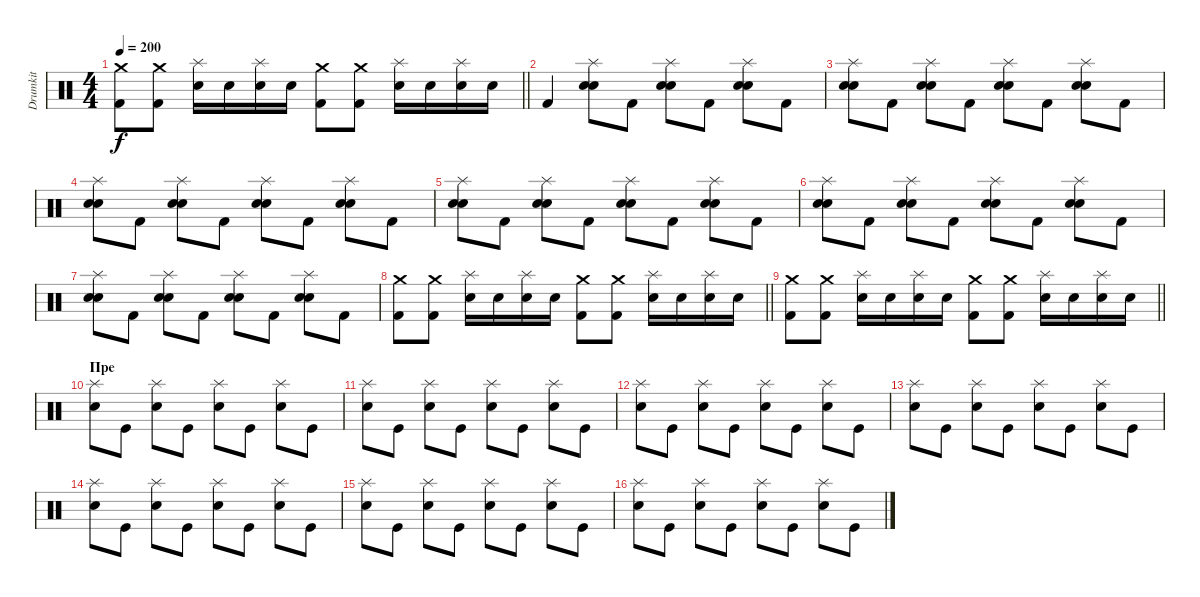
\track ("Drumkit" "Drumkit") {instrument percussion}
\staff {score}
\articulation defaults
\ts (4 4)
\tempo 200
\clef neutral
\barLineRight lightlight
\ks c
("Crash medium (hit)" "Kick (hit) 2").8{dy f} ("Crash medium (hit)" "Kick (hit) 2").8 ("Splash (hit)" "Electric Snare (hit)").16 "Electric Snare (hit)".16 ("Splash (hit)" "Electric Snare (hit)").16 "Electric Snare (hit)".16 ("Crash medium (hit)" "Kick (hit) 2").8 ("Crash medium (hit)" "Kick (hit) 2").8 ("Splash (hit)" "Electric Snare (hit)").16 "Electric Snare (hit)".16 ("Splash (hit)" "Electric Snare (hit)").16 "Electric Snare (hit)".16 |
"Kick (hit) 2".4 ("Splash (hit)" "Electric Snare (hit)" "Snare (hit) 2").8 "Kick (hit) 2".8 ("Splash (hit)" "Electric Snare (hit)" "Snare (hit) 2").8 "Kick (hit) 2".8 ("Splash (hit)" "Electric Snare (hit)" "Snare (hit) 2").8 "Kick (hit) 2".8 |
("Splash (hit)" "Electric Snare (hit)" "Snare (hit) 2").8 "Kick (hit) 2".8 ("Splash (hit)" "Electric Snare (hit)" "Snare (hit) 2").8 "Kick (hit) 2".8 ("Splash (hit)" "Electric Snare (hit)" "Snare (hit) 2").8 "Kick (hit) 2".8 ("Splash (hit)" "Electric Snare (hit)" "Snare (hit) 2").8 "Kick (hit) 2".8 |
("Splash (hit)" "Electric Snare (hit)" "Snare (hit) 2").8 "Kick (hit) 2".8 ("Splash (hit)" "Electric Snare (hit)" "Snare (hit) 2").8 "Kick (hit) 2".8 ("Splash (hit)" "Electric Snare (hit)" "Snare (hit) 2").8 "Kick (hit) 2".8 ("Splash (hit)" "Electric Snare (hit)" "Snare (hit) 2").8 "Kick (hit) 2".8 |
("Splash (hit)" "Electric Snare (hit)" "Snare (hit) 2").8 "Kick (hit) 2".8 ("Splash (hit)" "Electric Snare (hit)" "Snare (hit) 2").8 "Kick (hit) 2".8 ("Splash (hit)" "Electric Snare (hit)" "Snare (hit) 2").8 "Kick (hit) 2".8 ("Splash (hit)" "Electric Snare (hit)" "Snare (hit) 2").8 "Kick (hit) 2".8 |
("Splash (hit)" "Electric Snare (hit)" "Snare (hit) 2").8 "Kick (hit) 2".8 ("Splash (hit)" "Electric Snare (hit)" "Snare (hit) 2").8 "Kick (hit) 2".8 ("Splash (hit)" "Electric Snare (hit)" "Snare (hit) 2").8 "Kick (hit) 2".8 ("Splash (hit)" "Electric Snare (hit)" "Snare (hit) 2").8 "Kick (hit) 2".8 |
("Splash (hit)" "Electric Snare (hit)" "Snare (hit) 2").8 "Kick (hit) 2".8 ("Splash (hit)" "Electric Snare (hit)" "Snare (hit) 2").8 "Kick (hit) 2".8 ("Splash (hit)" "Electric Snare (hit)" "Snare (hit) 2").8 "Kick (hit) 2".8 ("Splash (hit)" "Electric Snare (hit)" "Snare (hit) 2").8 "Kick (hit) 2".8 |
\barLineRight lightlight
("Crash medium (hit)" "Kick (hit) 2").8 ("Crash medium (hit)" "Kick (hit) 2").8 ("Splash (hit)" "Electric Snare (hit)").16 "Electric Snare (hit)".16 ("Splash (hit)" "Electric Snare (hit)").16 "Electric Snare (hit)".16 ("Crash medium (hit)" "Kick (hit) 2").8 ("Crash medium (hit)" "Kick (hit) 2").8 ("Splash (hit)" "Electric Snare (hit)").16 "Electric Snare (hit)".16 ("Splash (hit)" "Electric Snare (hit)").16 "Electric Snare (hit)".16 |
\barLineRight lightlight
("Crash medium (hit)" "Kick (hit) 2").8 ("Crash medium (hit)" "Kick (hit) 2").8 ("Splash (hit)" "Electric Snare (hit)").16 "Electric Snare (hit)".16 ("Splash (hit)" "Electric Snare (hit)").16 "Electric Snare (hit)".16 ("Crash medium (hit)" "Kick (hit) 2").8 ("Crash medium (hit)" "Kick (hit) 2").8 ("Splash (hit)" "Electric Snare (hit)").16 "Electric Snare (hit)".16 ("Splash (hit)" "Electric Snare (hit)").16 "Electric Snare (hit)".16 |
\section ("" "Пре")
("Snare (hit) 2" "Splash (hit)").8 "Kick (hit)".8 ("Snare (hit) 2" "Splash (hit)").8 "Kick (hit)".8 ("Snare (hit) 2" "Splash (hit)").8 "Kick (hit)".8 ("Snare (hit) 2" "Splash (hit)").8 "Kick (hit)".8 |
("Snare (hit) 2" "Splash (hit)").8 "Kick (hit)".8 ("Snare (hit) 2" "Splash (hit)").8 "Kick (hit)".8 ("Snare (hit) 2" "Splash (hit)").8 "Kick (hit)".8 ("Snare (hit) 2" "Splash (hit)").8 "Kick (hit)".8 |
("Snare (hit) 2" "Splash (hit)").8 "Kick (hit)".8 ("Snare (hit) 2" "Splash (hit)").8 "Kick (hit)".8 ("Snare (hit) 2" "Splash (hit)").8 "Kick (hit)".8 ("Snare (hit) 2" "Splash (hit)").8 "Kick (hit)".8 |
("Snare (hit) 2" "Splash (hit)").8 "Kick (hit)".8 ("Snare (hit) 2" "Splash (hit)").8 "Kick (hit)".8 ("Snare (hit) 2" "Splash (hit)").8 "Kick (hit)".8 ("Snare (hit) 2" "Splash (hit)").8 "Kick (hit)".8 |
("Snare (hit) 2" "Splash (hit)").8 "Kick (hit)".8 ("Snare (hit) 2" "Splash (hit)").8 "Kick (hit)".8 ("Snare (hit) 2" "Splash (hit)").8 "Kick (hit)".8 ("Snare (hit) 2" "Splash (hit)").8 "Kick (hit)".8 |
("Snare (hit) 2" "Splash (hit)").8 "Kick (hit)".8 ("Snare (hit) 2" "Splash (hit)").8 "Kick (hit)".8 ("Snare (hit) 2" "Splash (hit)").8 "Kick (hit)".8 ("Snare (hit) 2" "Splash (hit)").8 "Kick (hit)".8 |
("Snare (hit) 2" "Splash (hit)").8 "Kick (hit)".8 ("Snare (hit) 2" "Splash (hit)").8 "Kick (hit)".8 ("Snare (hit) 2" "Splash (hit)").8 "Kick (hit)".8 ("Snare (hit) 2" "Splash (hit)").8 "Kick (hit)".8
